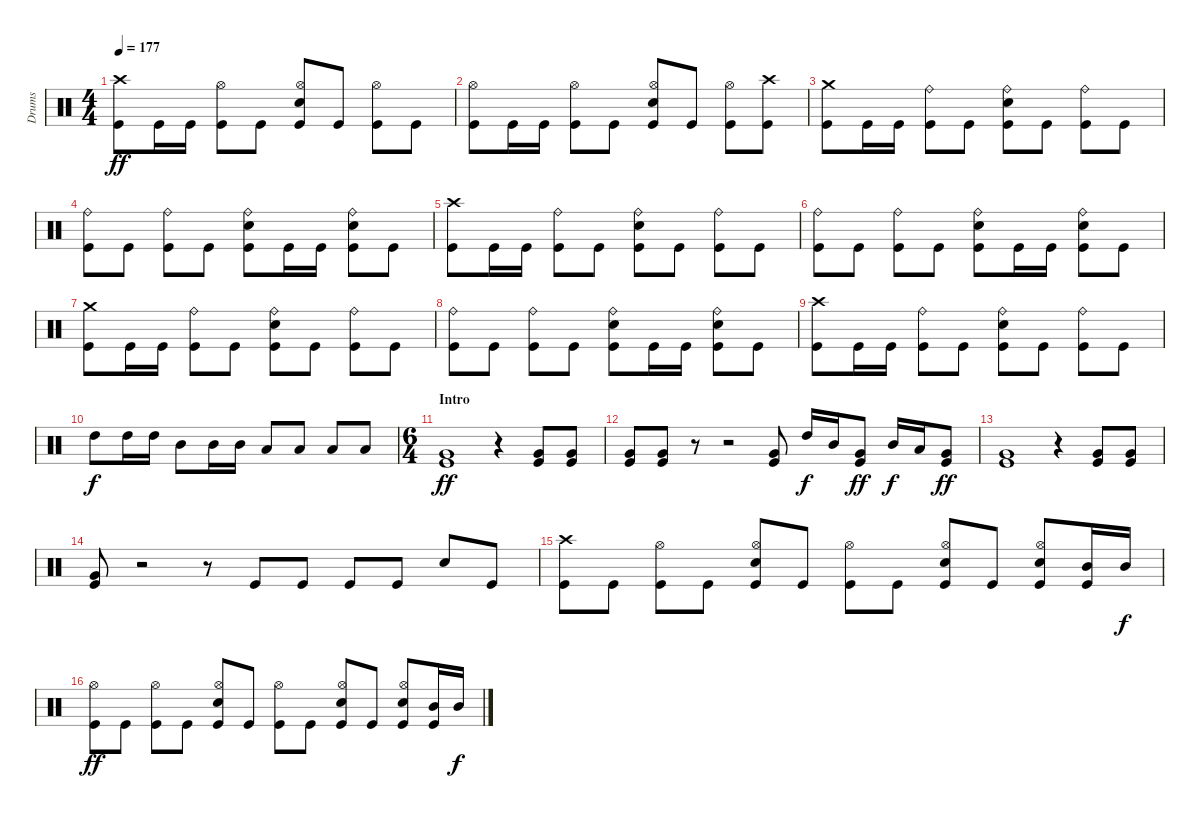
\track ("Drums" "Drums") {instrument percussion}
\staff {score}
\articulation defaults
\ts (4 4)
\tempo 177
\clef neutral
\ks c
("Crash high (hit)" "Kick (hit)").8{dy ff} "Kick (hit)".16 "Kick (hit)".16 ("Hi-Hat (open)" "Kick (hit)").8 "Kick (hit)".8 ("Hi-Hat (open)" "Electric Snare (hit)" "Kick (hit)").8 "Kick (hit)".8 ("Hi-Hat (open)" "Kick (hit)").8 "Kick (hit)".8 |
("Hi-Hat (open)" "Kick (hit)").8 "Kick (hit)".16 "Kick (hit)".16 ("Hi-Hat (open)" "Kick (hit)").8 "Kick (hit)".8 ("Hi-Hat (open)" "Electric Snare (hit)" "Kick (hit)").8 "Kick (hit)".8 ("Hi-Hat (open)" "Kick (hit)").8 ("Crash high (hit)" "Kick (hit)").8 |
("Crash medium (hit)" "Kick (hit)").8 "Kick (hit)".16 "Kick (hit)".16 ("Ride (bell)" "Kick (hit)").8 "Kick (hit)".8 ("Ride (bell)" "Electric Snare (hit)" "Kick (hit)").8 "Kick (hit)".8 ("Ride (bell)" "Kick (hit)").8 "Kick (hit)".8 |
("Ride (bell)" "Kick (hit)").8 "Kick (hit)".8 ("Ride (bell)" "Kick (hit)").8 "Kick (hit)".8 ("Ride (bell)" "Electric Snare (hit)" "Kick (hit)").8 "Kick (hit)".16 "Kick (hit)".16 ("Ride (bell)" "Electric Snare (hit)" "Kick (hit)").8 "Kick (hit)".8 |
("Crash high (hit)" "Kick (hit)").8 "Kick (hit)".16 "Kick (hit)".16 ("Ride (bell)" "Kick (hit)").8 "Kick (hit)".8 ("Ride (bell)" "Electric Snare (hit)" "Kick (hit)").8 "Kick (hit)".8 ("Ride (bell)" "Kick (hit)").8 "Kick (hit)".8 |
("Ride (bell)" "Kick (hit)").8 "Kick (hit)".8 ("Ride (bell)" "Kick (hit)").8 "Kick (hit)".8 ("Ride (bell)" "Electric Snare (hit)" "Kick (hit)").8 "Kick (hit)".16 "Kick (hit)".16 ("Ride (bell)" "Electric Snare (hit)" "Kick (hit)").8 "Kick (hit)".8 |
("Crash medium (hit)" "Kick (hit)").8 "Kick (hit)".16 "Kick (hit)".16 ("Ride (bell)" "Kick (hit)").8 "Kick (hit)".8 ("Ride (bell)" "Electric Snare (hit)" "Kick (hit)").8 "Kick (hit)".8 ("Ride (bell)" "Kick (hit)").8 "Kick (hit)".8 |
("Ride (bell)" "Kick (hit)").8 "Kick (hit)".8 ("Ride (bell)" "Kick (hit)").8 "Kick (hit)".8 ("Ride (bell)" "Electric Snare (hit)" "Kick (hit)").8 "Kick (hit)".16 "Kick (hit)".16 ("Ride (bell)" "Electric Snare (hit)" "Kick (hit)").8 "Kick (hit)".8 |
("Crash high (hit)" "Kick (hit)").8 "Kick (hit)".16 "Kick (hit)".16 ("Ride (bell)" "Kick (hit)").8 "Kick (hit)".8 ("Ride (bell)" "Electric Snare (hit)" "Kick (hit)").8 "Kick (hit)".8 ("Ride (bell)" "Kick (hit)").8 "Kick (hit)".8 |
"High Tom (hit)".8{dy f} "High Tom (hit)".16 "High Tom (hit)".16 "Mid Tom (hit)".8 "Mid Tom (hit)".16 "Mid Tom (hit)".16 "Low Tom (hit)".8 "Low Tom (hit)".8 "Low Tom (hit)".8 "Low Tom (hit)".8 |
\ts (6 4)
\section ("" "Intro")
("Very Low Tom (hit)" "Kick (hit)").1{dy ff} r.4 ("Very Low Tom (hit)" "Kick (hit)").8 ("Very Low Tom (hit)" "Kick (hit)").8 |
("Very Low Tom (hit)" "Kick (hit)").8 ("Very Low Tom (hit)" "Kick (hit)").8 r.8 r.2 ("Very Low Tom (hit)" "Kick (hit)").8 "High Tom (hit)".16{dy f} "Mid Tom (hit)".16 ("Very Low Tom (hit)" "Kick (hit)").8{dy ff} "Mid Tom (hit)".16{dy f} "Low Tom (hit)".16 ("Very Low Tom (hit)" "Kick (hit)").8{dy ff} |
("Very Low Tom (hit)" "Kick (hit)").1 r.4 ("Very Low Tom (hit)" "Kick (hit)").8 ("Very Low Tom (hit)" "Kick (hit)").8 |
("Very Low Tom (hit)" "Kick (hit)").8 r.2 r.8 "Kick (hit)".8 "Kick (hit)".8 "Kick (hit)".8 "Kick (hit)".8 "Electric Snare (hit)".8 "Kick (hit)".8 |
("Crash high (hit)" "Kick (hit)").8 "Kick (hit)".8 ("Hi-Hat (open)" "Kick (hit)").8 "Kick (hit)".8 ("Hi-Hat (open)" "Electric Snare (hit)" "Kick (hit)").8 "Kick (hit)".8 ("Hi-Hat (open)" "Kick (hit)").8 "Kick (hit)".8 ("Hi-Hat (open)" "Electric Snare (hit)" "Kick (hit)").8 "Kick (hit)".8 ("Hi-Hat (open)" "Electric Snare (hit)" "Kick (hit)").8 ("Mid Tom (hit)" "Kick (hit)").16 "Mid Tom (hit)".16{dy f} |
("Hi-Hat (open)" "Kick (hit)").8{dy ff} "Kick (hit)".8 ("Hi-Hat (open)" "Kick (hit)").8 "Kick (hit)".8 ("Hi-Hat (open)" "Electric Snare (hit)" "Kick (hit)").8 "Kick (hit)".8 ("Hi-Hat (open)" "Kick (hit)").8 "Kick (hit)".8 ("Hi-Hat (open)" "Electric Snare (hit)" "Kick (hit)").8 "Kick (hit)".8 ("Hi-Hat (open)" "Electric Snare (hit)" "Kick (hit)").8 ("Mid Tom (hit)" "Kick (hit)").16 "Mid Tom (hit)".16{dy f}
